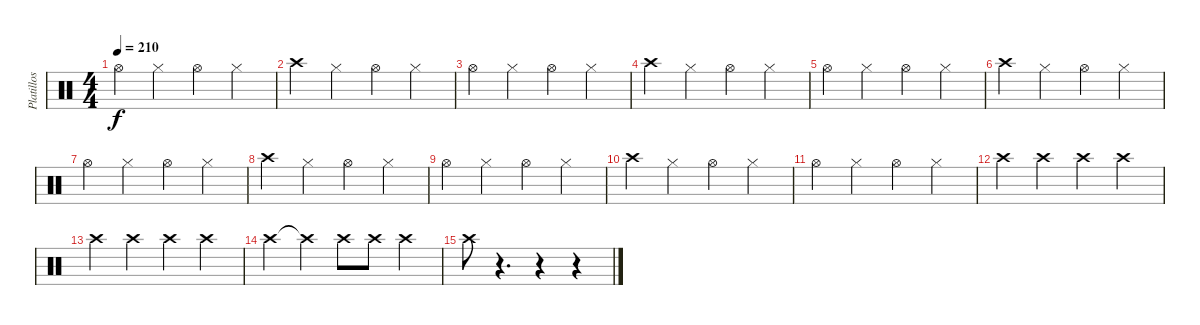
\track ("Platillos (Leo)" "Platillos ") {instrument percussion}
\staff {score}
\articulation defaults
\ts (4 4)
\tempo 210
\clef neutral
\ks c "Hi-Hat (open)".4{dy f} "Hi-Hat (closed)".4 "Hi-Hat (open)".4 "Hi-Hat (closed)".4
|
"Crash high (hit)".4 "Hi-Hat (closed)".4 "Hi-Hat (open)".4 "Hi-Hat (closed)".4 |
"Hi-Hat (open)".4 "Hi-Hat (closed)".4 "Hi-Hat (open)".4 "Hi-Hat (closed)".4 |
"Crash high (hit)".4 "Hi-Hat (closed)".4 "Hi-Hat (open)".4 "Hi-Hat (closed)".4 |
"Hi-Hat (open)".4 "Hi-Hat (closed)".4 "Hi-Hat (open)".4 "Hi-Hat (closed)".4 |
"Crash high (hit)".4 "Hi-Hat (closed)".4 "Hi-Hat (open)".4 "Hi-Hat (closed)".4 |
"Hi-Hat (open)".4 "Hi-Hat (closed)".4 "Hi-Hat (open)".4 "Hi-Hat (closed)".4 |
"Crash high (hit)".4 "Hi-Hat (closed)".4 "Hi-Hat (open)".4 "Hi-Hat (closed)".4 |
"Hi-Hat (open)".4 "Hi-Hat (closed)".4 "Hi-Hat (open)".4 "Hi-Hat (closed)".4 |
"Crash high (hit)".4 "Hi-Hat (closed)".4 "Hi-Hat (open)".4 "Hi-Hat (closed)".4 |
"Hi-Hat (open)".4 "Hi-Hat (closed)".4 "Hi-Hat (open)".4 "Hi-Hat (closed)".4 |
"Crash high (hit)".4 "Crash high (hit)".4 "Crash high (hit)".4 "Crash high (hit)".4 |
"Crash high (hit)".4 "Crash high (hit)".4 "Crash high (hit)".4 "Crash high (hit)".4 |
"Crash high (hit)".4{volume 6} "Crash high (hit)"{t}.4 "Crash high (hit)".8 "Crash high (hit)".8 "Crash high (hit)".4 |
"Crash high (hit)".8 r.4{d} r.4 r.4
